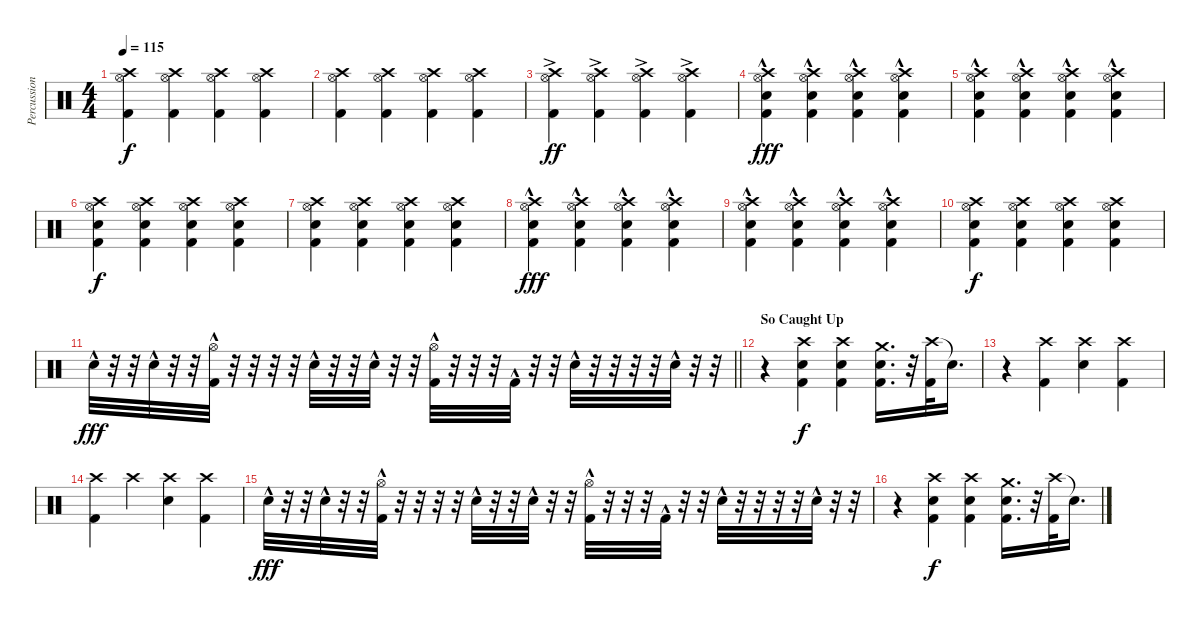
\track ("Percussion" "Percussion") {instrument percussion}
\staff {score}
\articulation defaults
\ts (4 4)
\tempo 115
\clef neutral
\ks c
("Crash high (hit)" "Hi-Hat (open)" "Kick (hit) 2").4{dy f} ("Crash high (hit)" "Hi-Hat (open)" "Kick (hit) 2").4 ("Crash high (hit)" "Hi-Hat (open)" "Kick (hit) 2").4 ("Crash high (hit)" "Hi-Hat (open)" "Kick (hit) 2").4 |
("Crash high (hit)" "Hi-Hat (open)" "Kick (hit) 2").4 ("Crash high (hit)" "Hi-Hat (open)" "Kick (hit) 2").4 ("Crash high (hit)" "Hi-Hat (open)" "Kick (hit) 2").4 ("Crash high (hit)" "Hi-Hat (open)" "Kick (hit) 2").4 |
("Crash high (hit)"{ac} "Hi-Hat (open)"{ac} "Kick (hit) 2"{ac}).4{dy ff} ("Crash high (hit)"{ac} "Hi-Hat (open)"{ac} "Kick (hit) 2"{ac}).4 ("Crash high (hit)"{ac} "Hi-Hat (open)"{ac} "Kick (hit) 2"{ac}).4 ("Crash high (hit)"{ac} "Hi-Hat (open)"{ac} "Kick (hit) 2"{ac}).4 |
("Crash high (hit)"{hac} "Hi-Hat (open)"{hac} "Electric Snare (hit)" "Kick (hit) 2"{hac}).4{dy fff} ("Crash high (hit)"{hac} "Hi-Hat (open)"{hac} "Electric Snare (hit)"{hac} "Kick (hit) 2"{hac}).4 ("Crash high (hit)"{hac} "Hi-Hat (open)"{hac} "Electric Snare (hit)" "Kick (hit) 2"{hac}).4 ("Crash high (hit)"{hac} "Hi-Hat (open)"{hac} "Electric Snare (hit)"{hac} "Kick (hit) 2"{hac}).4 |
("Crash high (hit)"{hac} "Hi-Hat (open)"{hac} "Electric Snare (hit)" "Kick (hit) 2"{hac}).4 ("Crash high (hit)"{hac} "Hi-Hat (open)"{hac} "Electric Snare (hit)"{hac} "Kick (hit) 2"{hac}).4 ("Crash high (hit)"{hac} "Hi-Hat (open)"{hac} "Electric Snare (hit)" "Kick (hit) 2"{hac}).4 ("Crash high (hit)"{hac} "Hi-Hat (open)"{hac} "Electric Snare (hit)"{hac} "Kick (hit) 2"{hac}).4 |
("Crash high (hit)" "Hi-Hat (open)" "Electric Snare (hit)" "Kick (hit) 2").4{dy f} ("Crash high (hit)" "Hi-Hat (open)" "Electric Snare (hit)" "Kick (hit) 2").4 ("Crash high (hit)" "Hi-Hat (open)" "Electric Snare (hit)" "Kick (hit) 2").4 ("Crash high (hit)" "Hi-Hat (open)" "Electric Snare (hit)" "Kick (hit) 2").4 |
("Crash high (hit)" "Hi-Hat (open)" "Electric Snare (hit)" "Kick (hit) 2").4 ("Crash high (hit)" "Hi-Hat (open)" "Electric Snare (hit)" "Kick (hit) 2").4 ("Crash high (hit)" "Hi-Hat (open)" "Electric Snare (hit)" "Kick (hit) 2").4 ("Crash high (hit)" "Hi-Hat (open)" "Electric Snare (hit)" "Kick (hit) 2").4 |
("Crash high (hit)"{hac} "Hi-Hat (open)"{hac} "Electric Snare (hit)" "Kick (hit) 2"{hac}).4{dy fff} ("Crash high (hit)"{hac} "Hi-Hat (open)"{hac} "Electric Snare (hit)"{hac} "Kick (hit) 2"{hac}).4 ("Crash high (hit)"{hac} "Hi-Hat (open)"{hac} "Electric Snare (hit)" "Kick (hit) 2"{hac}).4 ("Crash high (hit)"{hac} "Hi-Hat (open)"{hac} "Electric Snare (hit)"{hac} "Kick (hit) 2"{hac}).4 |
("Crash high (hit)"{hac} "Hi-Hat (open)"{hac} "Electric Snare (hit)" "Kick (hit) 2"{hac}).4 ("Crash high (hit)"{hac} "Hi-Hat (open)"{hac} "Electric Snare (hit)"{hac} "Kick (hit) 2"{hac}).4 ("Crash high (hit)"{hac} "Hi-Hat (open)"{hac} "Electric Snare (hit)" "Kick (hit) 2"{hac}).4 ("Crash high (hit)"{hac} "Hi-Hat (open)"{hac} "Electric Snare (hit)"{hac} "Kick (hit) 2"{hac}).4 |
("Crash high (hit)" "Hi-Hat (open)" "Electric Snare (hit)" "Kick (hit) 2").4{dy f} ("Crash high (hit)" "Hi-Hat (open)" "Electric Snare (hit)" "Kick (hit) 2").4 ("Crash high (hit)" "Hi-Hat (open)" "Electric Snare (hit)" "Kick (hit) 2").4 ("Crash high (hit)" "Hi-Hat (open)" "Electric Snare (hit)" "Kick (hit) 2").4 |
\barLineRight lightlight "Electric Snare (hit)"{hac}.32{dy fff}
r.32 r.32 "Electric Snare (hit)"{hac}.32 r.32 r.32 ("Hi-Hat (open)"{hac} "Kick (hit) 2"{hac}).32 r.32 r.32 r.32 r.32 "Electric Snare (hit)"{hac}.32 r.32 r.32 "Electric Snare (hit)"{hac}.32 r.32 r.32 ("Hi-Hat (open)"{hac} "Kick (hit) 2"{hac}).32 r.32 r.32 r.32 "Kick (hit) 2"{hac}.32 r.32 r.32 "Electric Snare (hit)"{hac}.32 r.32 r.32 r.32 r.32 "Electric Snare (hit)"{hac}.32 r.32 r.32 |
\section ("" "So Caught Up")
r.4 ("Crash high (hit)" "Electric Snare (hit)" "Kick (hit) 2").4{dy f} ("Crash high (hit)" "Electric Snare (hit)" "Kick (hit) 2").4 ("Crash medium (hit)" "Electric Snare (hit)" "Kick (hit) 2").16{d} r.32 ("Crash high (hit)" "Kick (hit) 2").32 "Snare (hit)"{t}.16{d} |
r.4 ("Crash high (hit)" "Kick (hit) 2").4 ("Crash high (hit)" "Electric Snare (hit)").4 ("Crash high (hit)" "Kick (hit) 2").4 |
("Crash high (hit)" "Kick (hit) 2").4 "Crash high (hit)".4 ("Crash high (hit)" "Electric Snare (hit)").4 ("Crash high (hit)" "Kick (hit) 2").4 |
"Electric Snare (hit)"{hac}.32{dy fff} r.32 r.32 "Electric Snare (hit)"{hac}.32 r.32 r.32 ("Hi-Hat (open)"{hac} "Kick (hit) 2"{hac}).32 r.32 r.32 r.32 r.32 "Electric Snare (hit)"{hac}.32 r.32 r.32 "Electric Snare (hit)"{hac}.32 r.32 r.32 ("Hi-Hat (open)"{hac} "Kick (hit) 2"{hac}).32 r.32 r.32 r.32 "Kick (hit) 2"{hac}.32 r.32 r.32 "Electric Snare (hit)"{hac}.32 r.32 r.32 r.32 r.32 "Electric Snare (hit)"{hac}.32 r.32 r.32 |
r.4 ("Crash high (hit)" "Electric Snare (hit)" "Kick (hit) 2").4{dy f} ("Crash high (hit)" "Electric Snare (hit)" "Kick (hit) 2").4 ("Crash medium (hit)" "Electric Snare (hit)" "Kick (hit) 2").16{d} r.32 ("Crash high (hit)" "Kick (hit) 2").32 "Snare (hit)"{t}.16{d}
